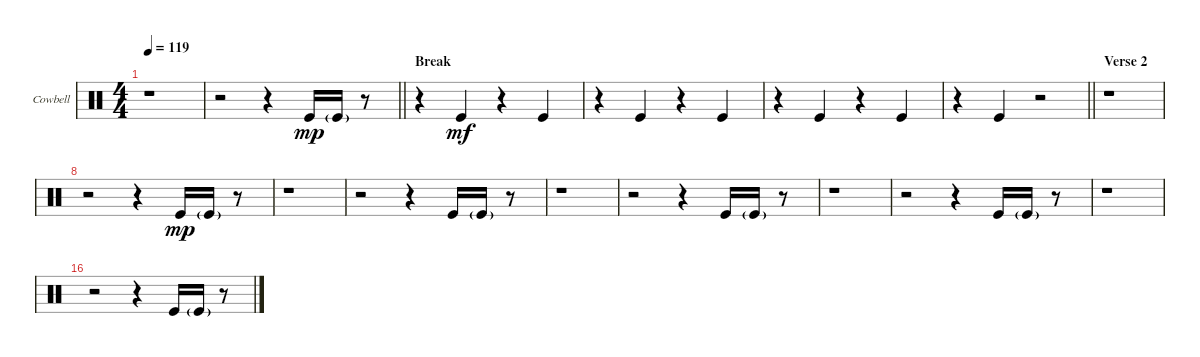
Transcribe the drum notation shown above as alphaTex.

\defaultSystemsLayout 4
\bracketExtendMode groupsimilarinstruments
\useSystemSignSeparator
\multiBarRest
\multiTrackTrackNamePolicy allsystems
\firstSystemTrackNameMode fullname
\firstSystemTrackNameOrientation horizontal
\otherSystemsTrackNameOrientation horizontal
\defaultBarNumberDisplay FirstOfSystem
\track ("Cowbell" "Cowbell") {multiBarRest instrument percussion}
\staff {score}
\articulation defaults
\ts (4 4)
\tempo 119
\clef neutral
\ks aminor
r.1{dy mp} |
\barLineRight lightlight
r.2 r.4 "Kick (hit)".16 "Kick (hit)"{g}.16 r.8 |
\section ("" "Break")
r.4 "Kick (hit)".4{dy mf} r.4 "Kick (hit)".4 |
r.4 "Kick (hit)".4 r.4 "Kick (hit)".4 |
r.4 "Kick (hit)".4 r.4 "Kick (hit)".4 |
\barLineRight lightlight
r.4 "Kick (hit)".4 r.2 |
\section ("" "Verse 2")
r.1 |
r.2 r.4 "Kick (hit)".16{dy mp} "Kick (hit)"{g}.16 r.8 |
r.1 |
r.2 r.4 "Kick (hit)".16 "Kick (hit)"{g}.16 r.8 |
r.1 |
r.2 r.4 "Kick (hit)".16 "Kick (hit)"{g}.16 r.8 |
r.1 |
r.2 r.4 "Kick (hit)".16 "Kick (hit)"{g}.16 r.8 |
r.1 |
r.2 r.4 "Kick (hit)".16 "Kick (hit)"{g}.16 r.8
